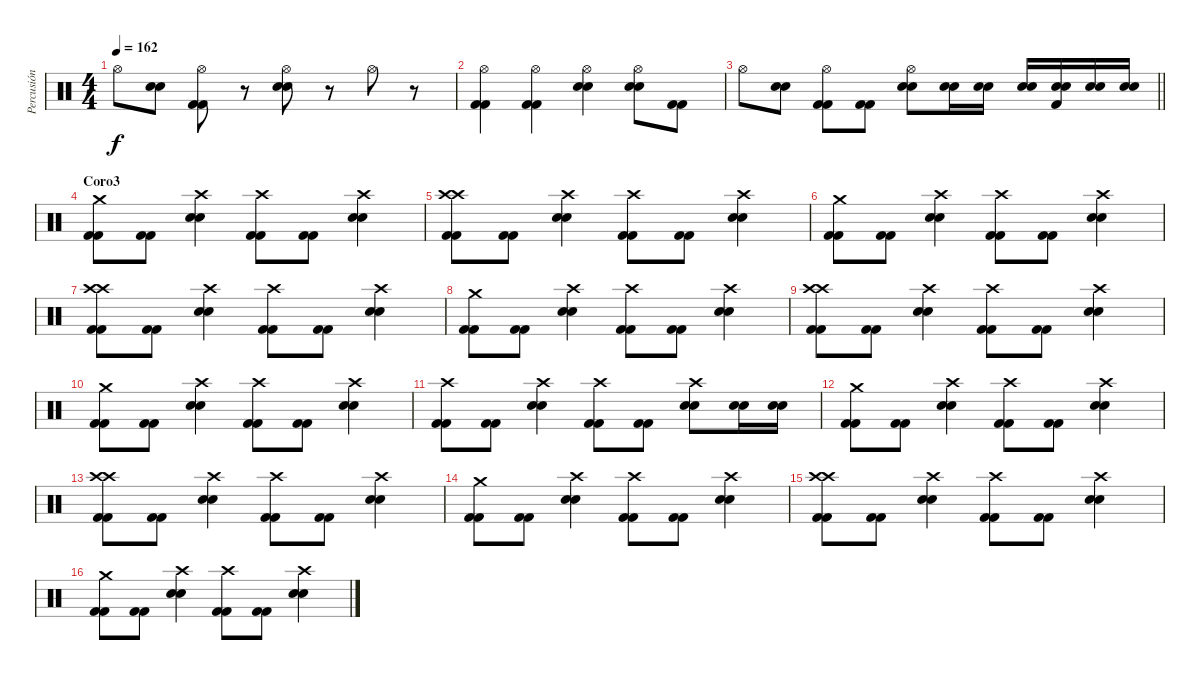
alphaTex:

\track ("Percusión" "Percusión") {instrument percussion}
\staff {score}
\articulation defaults
\ts (4 4)
\tempo 162
\clef neutral
\ks c "Hi-Hat (open)".8{dy f}
("Electric Snare (hit)" "Electric Snare (hit)").8 ("Hi-Hat (open)" "Kick (hit) 2" "Kick (hit) 2").8 r.8 ("Hi-Hat (open)" "Electric Snare (hit)" "Electric Snare (hit)").8 r.8 "Hi-Hat (open)".8 r.8 |
("Hi-Hat (open)" "Kick (hit) 2" "Kick (hit) 2").4 ("Hi-Hat (open)" "Kick (hit) 2" "Kick (hit) 2").4 ("Hi-Hat (open)" "Electric Snare (hit)" "Electric Snare (hit)").4 ("Hi-Hat (open)" "Electric Snare (hit)" "Electric Snare (hit)").8 ("Kick (hit) 2" "Kick (hit) 2").8 |
\barLineRight lightlight "Hi-Hat (open)".8
("Electric Snare (hit)" "Electric Snare (hit)").8 ("Hi-Hat (open)" "Kick (hit) 2" "Kick (hit) 2").8 ("Kick (hit) 2" "Kick (hit) 2").8 ("Hi-Hat (open)" "Electric Snare (hit)" "Electric Snare (hit)").8 ("Electric Snare (hit)" "Electric Snare (hit)").16 ("Electric Snare (hit)" "Electric Snare (hit)").16 ("Electric Snare (hit)" "Electric Snare (hit)").16 ("Electric Snare (hit)" "Electric Snare (hit)" "Kick (hit) 2").16 ("Electric Snare (hit)" "Electric Snare (hit)").16 ("Electric Snare (hit)" "Electric Snare (hit)").16 |
\section ("" "Coro3")
("Crash medium (hit)" "Kick (hit) 2" "Kick (hit) 2").8 ("Kick (hit) 2" "Kick (hit) 2").8 ("Crash high (hit)" "Electric Snare (hit)" "Electric Snare (hit)").4 ("Crash high (hit)" "Kick (hit) 2" "Kick (hit) 2").8 ("Kick (hit) 2" "Kick (hit) 2").8 ("Crash high (hit)" "Electric Snare (hit)" "Electric Snare (hit)").4 |
("Crash high (hit)" "Crash high (hit)" "Kick (hit) 2" "Kick (hit) 2").8 ("Kick (hit) 2" "Kick (hit) 2").8 ("Crash high (hit)" "Electric Snare (hit)" "Electric Snare (hit)").4 ("Crash high (hit)" "Kick (hit) 2" "Kick (hit) 2").8 ("Kick (hit) 2" "Kick (hit) 2").8 ("Crash high (hit)" "Electric Snare (hit)" "Electric Snare (hit)").4 |
("Crash medium (hit)" "Kick (hit) 2" "Kick (hit) 2").8 ("Kick (hit) 2" "Kick (hit) 2").8 ("Crash high (hit)" "Electric Snare (hit)" "Electric Snare (hit)").4 ("Crash high (hit)" "Kick (hit) 2" "Kick (hit) 2").8 ("Kick (hit) 2" "Kick (hit) 2").8 ("Crash high (hit)" "Electric Snare (hit)" "Electric Snare (hit)").4 |
("Crash high (hit)" "Crash high (hit)" "Kick (hit) 2" "Kick (hit) 2").8 ("Kick (hit) 2" "Kick (hit) 2").8 ("Crash high (hit)" "Electric Snare (hit)" "Electric Snare (hit)").4 ("Crash high (hit)" "Kick (hit) 2" "Kick (hit) 2").8 ("Kick (hit) 2" "Kick (hit) 2").8 ("Crash high (hit)" "Electric Snare (hit)" "Electric Snare (hit)").4 |
("Crash medium (hit)" "Kick (hit) 2" "Kick (hit) 2").8 ("Kick (hit) 2" "Kick (hit) 2").8 ("Crash high (hit)" "Electric Snare (hit)" "Electric Snare (hit)").4 ("Crash high (hit)" "Kick (hit) 2" "Kick (hit) 2").8 ("Kick (hit) 2" "Kick (hit) 2").8 ("Crash high (hit)" "Electric Snare (hit)" "Electric Snare (hit)").4 |
("Crash high (hit)" "Crash high (hit)" "Kick (hit) 2" "Kick (hit) 2").8 ("Kick (hit) 2" "Kick (hit) 2").8 ("Crash high (hit)" "Electric Snare (hit)" "Electric Snare (hit)").4 ("Crash high (hit)" "Kick (hit) 2" "Kick (hit) 2").8 ("Kick (hit) 2" "Kick (hit) 2").8 ("Crash high (hit)" "Electric Snare (hit)" "Electric Snare (hit)").4 |
("Crash medium (hit)" "Kick (hit) 2" "Kick (hit) 2").8 ("Kick (hit) 2" "Kick (hit) 2").8 ("Crash high (hit)" "Electric Snare (hit)" "Electric Snare (hit)").4 ("Crash high (hit)" "Kick (hit) 2" "Kick (hit) 2").8 ("Kick (hit) 2" "Kick (hit) 2").8 ("Crash high (hit)" "Electric Snare (hit)" "Electric Snare (hit)").4 |
("Crash high (hit)" "Kick (hit) 2" "Kick (hit) 2").8 ("Kick (hit) 2" "Kick (hit) 2").8 ("Crash high (hit)" "Electric Snare (hit)" "Electric Snare (hit)").4 ("Crash high (hit)" "Kick (hit) 2" "Kick (hit) 2").8 ("Kick (hit) 2" "Kick (hit) 2").8 ("Crash high (hit)" "Electric Snare (hit)" "Electric Snare (hit)").8 ("Electric Snare (hit)" "Electric Snare (hit)").16 ("Electric Snare (hit)" "Electric Snare (hit)").16 |
("Crash medium (hit)" "Kick (hit) 2" "Kick (hit) 2").8 ("Kick (hit) 2" "Kick (hit) 2").8 ("Crash high (hit)" "Electric Snare (hit)" "Electric Snare (hit)").4 ("Crash high (hit)" "Kick (hit) 2" "Kick (hit) 2").8 ("Kick (hit) 2" "Kick (hit) 2").8 ("Crash high (hit)" "Electric Snare (hit)" "Electric Snare (hit)").4 |
("Crash high (hit)" "Crash high (hit)" "Kick (hit) 2" "Kick (hit) 2").8 ("Kick (hit) 2" "Kick (hit) 2").8 ("Crash high (hit)" "Electric Snare (hit)" "Electric Snare (hit)").4 ("Crash high (hit)" "Kick (hit) 2" "Kick (hit) 2").8 ("Kick (hit) 2" "Kick (hit) 2").8 ("Crash high (hit)" "Electric Snare (hit)" "Electric Snare (hit)").4 |
("Crash medium (hit)" "Kick (hit) 2" "Kick (hit) 2").8 ("Kick (hit) 2" "Kick (hit) 2").8 ("Crash high (hit)" "Electric Snare (hit)" "Electric Snare (hit)").4 ("Crash high (hit)" "Kick (hit) 2" "Kick (hit) 2").8 ("Kick (hit) 2" "Kick (hit) 2").8 ("Crash high (hit)" "Electric Snare (hit)" "Electric Snare (hit)").4 |
("Crash high (hit)" "Crash high (hit)" "Kick (hit) 2" "Kick (hit) 2").8 ("Kick (hit) 2" "Kick (hit) 2").8 ("Crash high (hit)" "Electric Snare (hit)" "Electric Snare (hit)").4 ("Crash high (hit)" "Kick (hit) 2" "Kick (hit) 2").8 ("Kick (hit) 2" "Kick (hit) 2").8 ("Crash high (hit)" "Electric Snare (hit)" "Electric Snare (hit)").4 |
("Crash medium (hit)" "Kick (hit) 2" "Kick (hit) 2").8 ("Kick (hit) 2" "Kick (hit) 2").8 ("Crash high (hit)" "Electric Snare (hit)" "Electric Snare (hit)").4 ("Crash high (hit)" "Kick (hit) 2" "Kick (hit) 2").8 ("Kick (hit) 2" "Kick (hit) 2").8 ("Crash high (hit)" "Electric Snare (hit)" "Electric Snare (hit)").4
